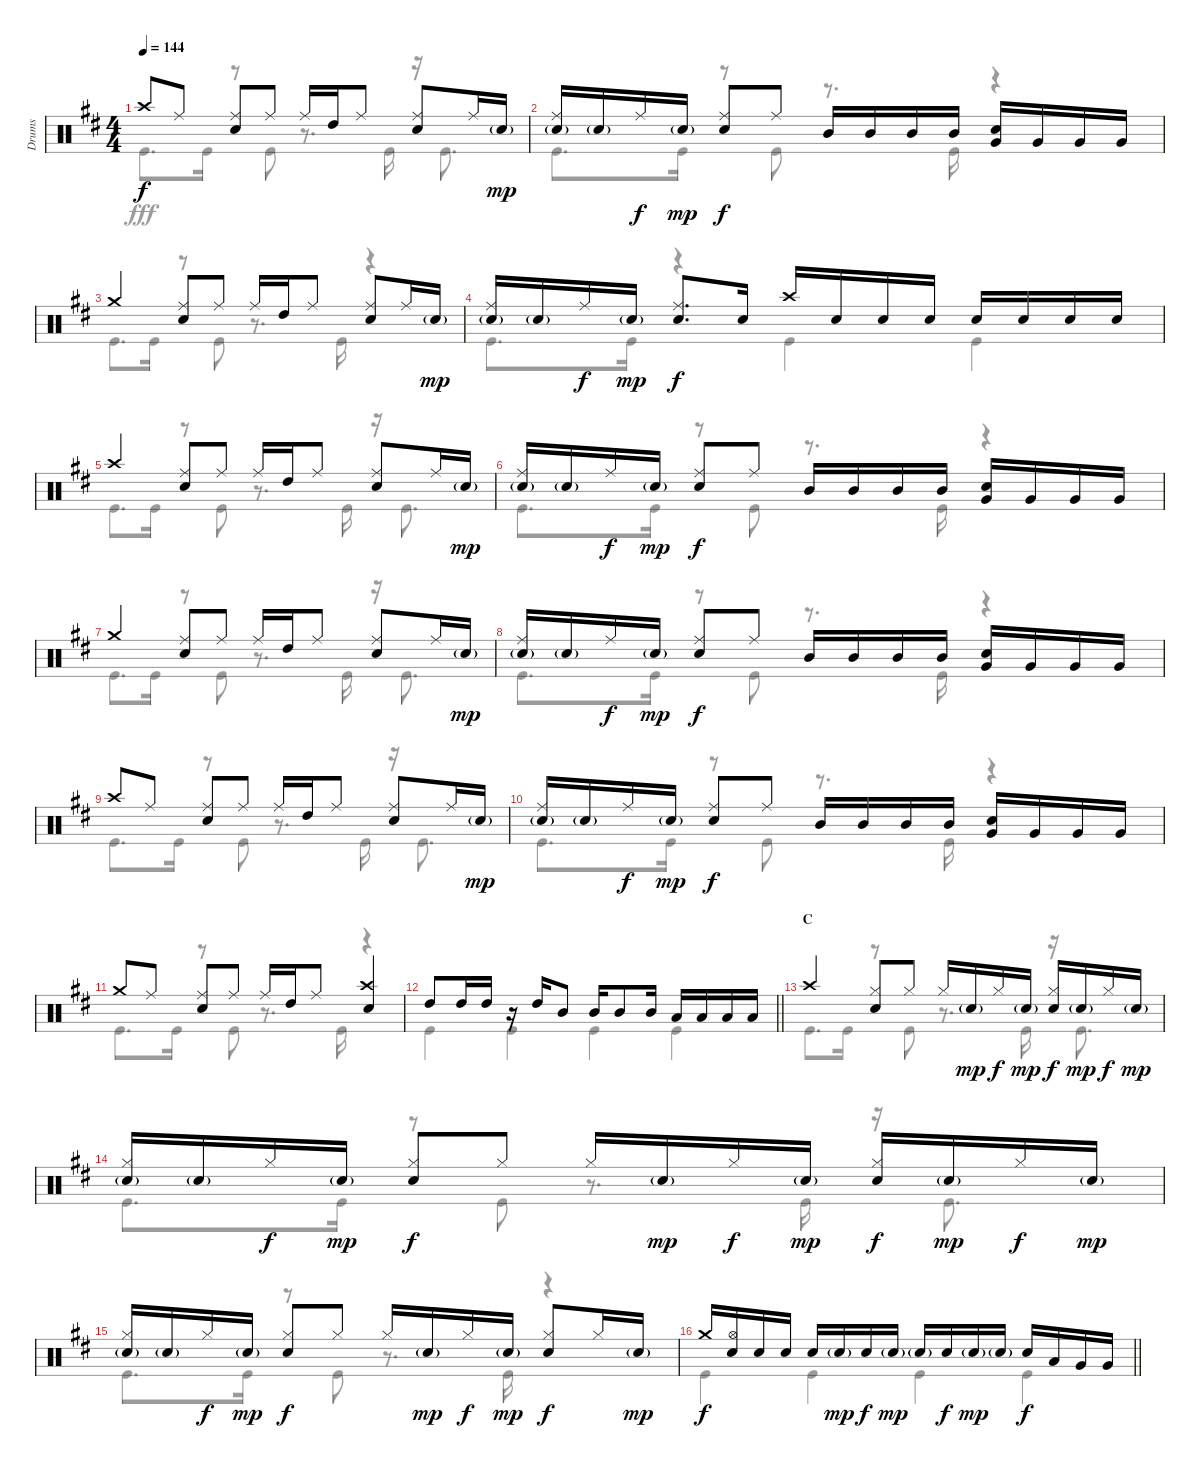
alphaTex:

\track ("Drums" "Drums") {instrument percussion}
\staff {score}
\articulation defaults
\voice
\ts (4 4)
\tempo 144
\clef neutral
\ks d "Crash high (hit)".8{dy f} "Ride (middle)".8
("Ride (middle)" "Snare (hit) 2").8 "Ride (middle)".8 "Ride (middle)".16 "High Tom (hit)".16 "Ride (middle)".8 ("Ride (middle)" "Snare (hit) 2").8 "Ride (middle)".16 "Snare (hit) 2"{g}.16{dy mp} |
("Ride (middle)" "Snare (hit) 2"{g}).16 "Snare (hit) 2"{g}.16 "Ride (middle)".16{dy f} "Snare (hit) 2"{g}.16{dy mp} ("Ride (middle)" "Snare (hit) 2").8{dy f} "Ride (middle)".8 "Mid Tom (hit)".16 "Mid Tom (hit)".16 "Mid Tom (hit)".16 "Mid Tom (hit)".16 ("Snare (hit) 2" "Very Low Tom (hit)").16 "Very Low Tom (hit)".16 "Very Low Tom (hit)".16 "Very Low Tom (hit)".16 |
"Crash medium (hit)".4 ("Ride (middle)" "Snare (hit) 2").8 "Ride (middle)".8 "Ride (middle)".16 "High Tom (hit)".16 "Ride (middle)".8 ("Ride (middle)" "Snare (hit) 2").8 "Ride (middle)".16 "Snare (hit) 2"{g}.16{dy mp} |
("Ride (middle)" "Snare (hit) 2"{g}).16 "Snare (hit) 2"{g}.16 "Ride (middle)".16{dy f} "Snare (hit) 2"{g}.16{dy mp} ("Ride (middle)" "Snare (hit) 2").8{d dy f} "Snare (hit) 2".16 "Crash high (hit)".16 "Snare (hit) 2".16 "Snare (hit) 2".16 "Snare (hit) 2".16 "Snare (hit) 2".16 "Snare (hit) 2".16 "Snare (hit) 2".16 "Snare (hit) 2".16 |
"Crash high (hit)".4 ("Ride (middle)" "Snare (hit) 2").8 "Ride (middle)".8 "Ride (middle)".16 "High Tom (hit)".16 "Ride (middle)".8 ("Ride (middle)" "Snare (hit) 2").8 "Ride (middle)".16 "Snare (hit) 2"{g}.16{dy mp} |
("Ride (middle)" "Snare (hit) 2"{g}).16 "Snare (hit) 2"{g}.16 "Ride (middle)".16{dy f} "Snare (hit) 2"{g}.16{dy mp} ("Ride (middle)" "Snare (hit) 2").8{dy f} "Ride (middle)".8 "Mid Tom (hit)".16 "Mid Tom (hit)".16 "Mid Tom (hit)".16 "Mid Tom (hit)".16 ("Snare (hit) 2" "Very Low Tom (hit)").16 "Very Low Tom (hit)".16 "Very Low Tom (hit)".16 "Very Low Tom (hit)".16 |
"Crash medium (hit)".4 ("Ride (middle)" "Snare (hit) 2").8 "Ride (middle)".8 "Ride (middle)".16 "High Tom (hit)".16 "Ride (middle)".8 ("Ride (middle)" "Snare (hit) 2").8 "Ride (middle)".16 "Snare (hit) 2"{g}.16{dy mp} |
("Ride (middle)" "Snare (hit) 2"{g}).16 "Snare (hit) 2"{g}.16 "Ride (middle)".16{dy f} "Snare (hit) 2"{g}.16{dy mp} ("Ride (middle)" "Snare (hit) 2").8{dy f} "Ride (middle)".8 "Mid Tom (hit)".16 "Mid Tom (hit)".16 "Mid Tom (hit)".16 "Mid Tom (hit)".16 ("Snare (hit) 2" "Very Low Tom (hit)").16 "Very Low Tom (hit)".16 "Very Low Tom (hit)".16 "Very Low Tom (hit)".16 |
"Crash high (hit)".8 "Ride (middle)".8 ("Ride (middle)" "Snare (hit) 2").8 "Ride (middle)".8 "Ride (middle)".16 "High Tom (hit)".16 "Ride (middle)".8 ("Ride (middle)" "Snare (hit) 2").8 "Ride (middle)".16 "Snare (hit) 2"{g}.16{dy mp} |
("Ride (middle)" "Snare (hit) 2"{g}).16 "Snare (hit) 2"{g}.16 "Ride (middle)".16{dy f} "Snare (hit) 2"{g}.16{dy mp} ("Ride (middle)" "Snare (hit) 2").8{dy f} "Ride (middle)".8 "Mid Tom (hit)".16 "Mid Tom (hit)".16 "Mid Tom (hit)".16 "Mid Tom (hit)".16 ("Snare (hit) 2" "Very Low Tom (hit)").16 "Very Low Tom (hit)".16 "Very Low Tom (hit)".16 "Very Low Tom (hit)".16 |
"Crash medium (hit)".8 "Ride (middle)".8 ("Ride (middle)" "Snare (hit) 2").8 "Ride (middle)".8 "Ride (middle)".16 "High Tom (hit)".16 "Ride (middle)".8 ("Crash high (hit)" "Snare (hit) 2").4 |
\barLineRight lightlight "High Tom (hit)".8 "High Tom (hit)".16 "High Tom (hit)".16
r.16 "High Tom (hit)".16 "Mid Tom (hit)".8 "Mid Tom (hit)".16 "Mid Tom (hit)".8 "Mid Tom (hit)".16 "Low Tom (hit)".16 "Low Tom (hit)".16 "Low Tom (hit)".16 "Low Tom (hit)".16 |
\section ("" "C")
"Crash high (hit)".4 ("Hi-Hat (closed)" "Snare (hit) 2").8 "Hi-Hat (closed)".8 "Hi-Hat (closed)".16 "Snare (hit) 2"{g}.16{dy mp} "Hi-Hat (closed)".16{dy f} "Snare (hit) 2"{g}.16{dy mp} ("Hi-Hat (closed)" "Snare (hit) 2").16{dy f} "Snare (hit) 2"{g}.16{dy mp} "Hi-Hat (closed)".16{dy f} "Snare (hit) 2"{g}.16{dy mp} |
("Hi-Hat (closed)" "Snare (hit) 2"{g}).16 "Snare (hit) 2"{g}.16 "Hi-Hat (closed)".16{dy f} "Snare (hit) 2"{g}.16{dy mp} ("Hi-Hat (closed)" "Snare (hit) 2").8{dy f} "Hi-Hat (closed)".8 "Hi-Hat (closed)".16 "Snare (hit) 2"{g}.16{dy mp} "Hi-Hat (closed)".16{dy f} "Snare (hit) 2"{g}.16{dy mp} ("Hi-Hat (closed)" "Snare (hit) 2").16{dy f} "Snare (hit) 2"{g}.16{dy mp} "Hi-Hat (closed)".16{dy f} "Snare (hit) 2"{g}.16{dy mp} |
("Hi-Hat (closed)" "Snare (hit) 2"{g}).16 "Snare (hit) 2"{g}.16 "Hi-Hat (closed)".16{dy f} "Snare (hit) 2"{g}.16{dy mp} ("Hi-Hat (closed)" "Snare (hit) 2").8{dy f} "Hi-Hat (closed)".8 "Hi-Hat (closed)".16 "Snare (hit) 2"{g}.16{dy mp} "Hi-Hat (closed)".16{dy f} "Snare (hit) 2"{g}.16{dy mp} ("Hi-Hat (closed)" "Snare (hit) 2").8{dy f} "Hi-Hat (closed)".16 "Snare (hit) 2"{g}.16{dy mp} |
\barLineRight lightlight "Crash medium (hit)".16{dy f}
("Hi-Hat (open)" "Snare (hit) 2").16 "Snare (hit) 2".16 "Snare (hit) 2".16 "Snare (hit) 2".16 "Snare (hit) 2"{g}.16{dy mp} "Snare (hit) 2".16{dy f} "Snare (hit) 2"{g}.16{dy mp} "Snare (hit) 2"{g}.16 "Snare (hit) 2".16{dy f} "Snare (hit) 2"{g}.16{dy mp} "Snare (hit) 2"{g}.16 "Snare (hit) 2".16{dy f} "Low Tom (hit)".16 "Very Low Tom (hit)".16 "Very Low Tom (hit)".16
\voice
\clef neutral
\ottava regular
\simile none
\ks d "Kick (hit)".8{d dy fff} "Kick (hit)".16
r.8 "Kick (hit)".8 r.8{d} "Kick (hit)".16 r.16 "Kick (hit)".8{d} |
"Kick (hit)".8{d} "Kick (hit)".16 r.8 "Kick (hit)".8 r.8{d} "Kick (hit)".16 r.4 |
"Kick (hit)".8{d} "Kick (hit)".16 r.8 "Kick (hit)".8 r.8{d} "Kick (hit)".16 r.4 |
"Kick (hit)".8{d} "Kick (hit)".16 r.4 "Kick (hit)".4 "Kick (hit)".4 |
"Kick (hit)".8{d} "Kick (hit)".16 r.8 "Kick (hit)".8 r.8{d} "Kick (hit)".16 r.16 "Kick (hit)".8{d} |
"Kick (hit)".8{d} "Kick (hit)".16 r.8 "Kick (hit)".8 r.8{d} "Kick (hit)".16 r.4 |
"Kick (hit)".8{d} "Kick (hit)".16 r.8 "Kick (hit)".8 r.8{d} "Kick (hit)".16 r.16 "Kick (hit)".8{d} |
"Kick (hit)".8{d} "Kick (hit)".16 r.8 "Kick (hit)".8 r.8{d} "Kick (hit)".16 r.4 |
"Kick (hit)".8{d} "Kick (hit)".16 r.8 "Kick (hit)".8 r.8{d} "Kick (hit)".16 r.16 "Kick (hit)".8{d} |
"Kick (hit)".8{d} "Kick (hit)".16 r.8 "Kick (hit)".8 r.8{d} "Kick (hit)".16 r.4 |
"Kick (hit)".8{d} "Kick (hit)".16 r.8 "Kick (hit)".8 r.8{d} "Kick (hit)".16 r.4 |
\barLineRight lightlight "Kick (hit)".4 "Kick (hit)".4 "Kick (hit)".4 "Kick (hit)".4
|
"Kick (hit)".8{d} "Kick (hit)".16 r.8 "Kick (hit)".8 r.8{d} "Kick (hit)".16 r.16 "Kick (hit)".8{d} |
"Kick (hit)".8{d} "Kick (hit)".16 r.8 "Kick (hit)".8 r.8{d} "Kick (hit)".16 r.16 "Kick (hit)".8{d} |
"Kick (hit)".8{d} "Kick (hit)".16 r.8 "Kick (hit)".8 r.8{d} "Kick (hit)".16 r.4 |
\barLineRight lightlight "Kick (hit)".4 "Kick (hit)".4 "Kick (hit)".4 "Kick (hit)".4
